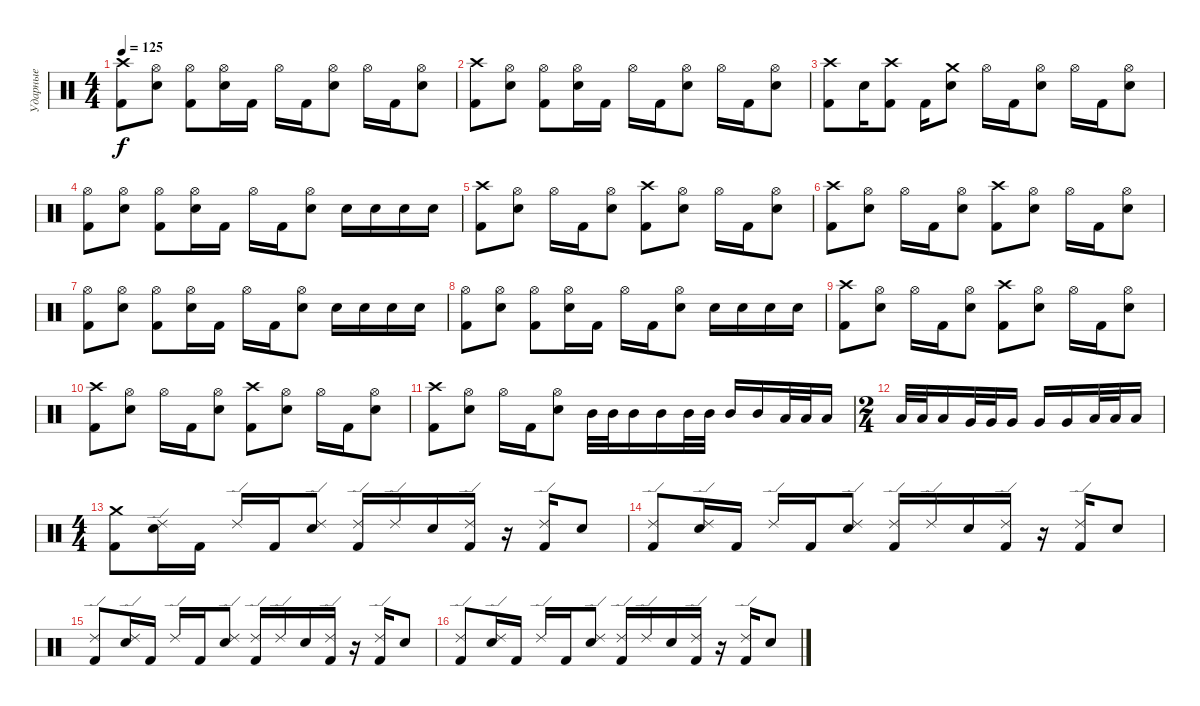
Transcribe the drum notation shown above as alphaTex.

\track ("Ударные" "Ударные") {instrument percussion}
\staff {score}
\articulation defaults
\ts (4 4)
\tempo 125
\clef neutral
\ks c
("Crash high (hit)" "Kick (hit) 2").8{dy f} ("Hi-Hat (open)" "Snare (hit) 2").8 ("Hi-Hat (open)" "Kick (hit) 2").8 ("Hi-Hat (open)" "Snare (hit) 2").16 "Kick (hit) 2".16 "Hi-Hat (open)".16 "Kick (hit) 2".16 ("Hi-Hat (open)" "Snare (hit) 2").8 "Hi-Hat (open)".16 "Kick (hit) 2".16 ("Hi-Hat (open)" "Snare (hit) 2").8 |
("Crash high (hit)" "Kick (hit) 2").8 ("Hi-Hat (open)" "Snare (hit) 2").8 ("Hi-Hat (open)" "Kick (hit) 2").8 ("Hi-Hat (open)" "Snare (hit) 2").16 "Kick (hit) 2".16 "Hi-Hat (open)".16 "Kick (hit) 2".16 ("Hi-Hat (open)" "Snare (hit) 2").8 "Hi-Hat (open)".16 "Kick (hit) 2".16 ("Hi-Hat (open)" "Snare (hit) 2").8 |
("Crash high (hit)" "Kick (hit) 2").8 "Snare (hit) 2".16 ("Crash high (hit)" "Kick (hit) 2").8 "Kick (hit) 2".16 ("Crash medium (hit)" "Snare (hit) 2").8 "Hi-Hat (open)".16 "Kick (hit) 2".16 ("Hi-Hat (open)" "Snare (hit) 2").8 "Hi-Hat (open)".16 "Kick (hit) 2".16 ("Hi-Hat (open)" "Snare (hit) 2").8 |
("Hi-Hat (open)" "Kick (hit) 2").8 ("Hi-Hat (open)" "Snare (hit) 2").8 ("Hi-Hat (open)" "Kick (hit) 2").8 ("Hi-Hat (open)" "Snare (hit) 2").16 "Kick (hit) 2".16 "Hi-Hat (open)".16 "Kick (hit) 2".16 ("Hi-Hat (open)" "Snare (hit) 2").8 "Snare (hit) 2".16 "Snare (hit) 2".16 "Snare (hit) 2".16 "Snare (hit) 2".16 |
("Crash high (hit)" "Kick (hit) 2").8 ("Hi-Hat (open)" "Snare (hit) 2").8 "Hi-Hat (open)".16 "Kick (hit) 2".16 ("Hi-Hat (open)" "Snare (hit) 2").8 ("Crash high (hit)" "Kick (hit) 2").8 ("Hi-Hat (open)" "Snare (hit) 2").8 "Hi-Hat (open)".16 "Kick (hit) 2".16 ("Hi-Hat (open)" "Snare (hit) 2").8 |
("Crash high (hit)" "Kick (hit) 2").8 ("Hi-Hat (open)" "Snare (hit) 2").8 "Hi-Hat (open)".16 "Kick (hit) 2".16 ("Hi-Hat (open)" "Snare (hit) 2").8 ("Crash high (hit)" "Kick (hit) 2").8 ("Hi-Hat (open)" "Snare (hit) 2").8 "Hi-Hat (open)".16 "Kick (hit) 2".16 ("Hi-Hat (open)" "Snare (hit) 2").8 |
("Hi-Hat (open)" "Kick (hit) 2").8 ("Hi-Hat (open)" "Snare (hit) 2").8 ("Hi-Hat (open)" "Kick (hit) 2").8 ("Hi-Hat (open)" "Snare (hit) 2").16 "Kick (hit) 2".16 "Hi-Hat (open)".16 "Kick (hit) 2".16 ("Hi-Hat (open)" "Snare (hit) 2").8 "Snare (hit) 2".16 "Snare (hit) 2".16 "Snare (hit) 2".16 "Snare (hit) 2".16 |
("Hi-Hat (open)" "Kick (hit) 2").8 ("Hi-Hat (open)" "Snare (hit) 2").8 ("Hi-Hat (open)" "Kick (hit) 2").8 ("Hi-Hat (open)" "Snare (hit) 2").16 "Kick (hit) 2".16 "Hi-Hat (open)".16 "Kick (hit) 2".16 ("Hi-Hat (open)" "Snare (hit) 2").8 "Snare (hit) 2".16 "Snare (hit) 2".16 "Snare (hit) 2".16 "Snare (hit) 2".16 |
("Crash high (hit)" "Kick (hit) 2").8 ("Hi-Hat (open)" "Snare (hit) 2").8 "Hi-Hat (open)".16 "Kick (hit) 2".16 ("Hi-Hat (open)" "Snare (hit) 2").8 ("Crash high (hit)" "Kick (hit) 2").8 ("Hi-Hat (open)" "Snare (hit) 2").8 "Hi-Hat (open)".16 "Kick (hit) 2".16 ("Hi-Hat (open)" "Snare (hit) 2").8 |
("Crash high (hit)" "Kick (hit) 2").8 ("Hi-Hat (open)" "Snare (hit) 2").8 "Hi-Hat (open)".16 "Kick (hit) 2".16 ("Hi-Hat (open)" "Snare (hit) 2").8 ("Crash high (hit)" "Kick (hit) 2").8 ("Hi-Hat (open)" "Snare (hit) 2").8 "Hi-Hat (open)".16 "Kick (hit) 2".16 ("Hi-Hat (open)" "Snare (hit) 2").8 |
("Crash high (hit)" "Kick (hit) 2").8 ("Hi-Hat (open)" "Snare (hit) 2").8 "Hi-Hat (open)".16 "Kick (hit) 2".16 ("Hi-Hat (open)" "Snare (hit) 2").8 "Mid Tom (hit)".32 "Mid Tom (hit)".32 "Mid Tom (hit)".16 "Mid Tom (hit)".16 "Mid Tom (hit)".32 "Mid Tom (hit)".32 "Mid Tom (hit)".16 "Mid Tom (hit)".16 "Low Tom (hit)".32 "Low Tom (hit)".32 "Low Tom (hit)".16 |
\ts (2 4)
"Low Tom (hit)".32 "Low Tom (hit)".32 "Low Tom (hit)".16 "Very Low Tom (hit)".32 "Very Low Tom (hit)".32 "Very Low Tom (hit)".16 "Very Low Tom (hit)".16 "Very Low Tom (hit)".16 "Low Floor Tom (hit)".32 "Low Floor Tom (hit)".32 "Low Floor Tom (hit)".16 |
\ts (4 4)
("Crash medium (hit)" "Kick (hit) 2").8 ("Ride (edge) 2" "Snare (hit) 2").16 "Kick (hit) 2".16 "Ride (edge) 2".16 "Kick (hit) 2".16 ("Ride (edge) 2" "Snare (hit) 2").8 ("Ride (edge) 2" "Kick (hit) 2").16 "Ride (edge) 2".16 "Snare (hit) 2".16 ("Ride (edge) 2" "Kick (hit) 2").16 r.16 ("Ride (edge) 2" "Kick (hit) 2").16 "Snare (hit) 2".8 |
("Ride (edge) 2" "Kick (hit) 2").8 ("Ride (edge) 2" "Snare (hit) 2").16 "Kick (hit) 2".16 "Ride (edge) 2".16 "Kick (hit) 2".16 ("Ride (edge) 2" "Snare (hit) 2").8 ("Ride (edge) 2" "Kick (hit) 2").16 "Ride (edge) 2".16 "Snare (hit) 2".16 ("Ride (edge) 2" "Kick (hit) 2").16 r.16 ("Ride (edge) 2" "Kick (hit) 2").16 "Snare (hit) 2".8 |
("Ride (edge) 2" "Kick (hit) 2").8 ("Ride (edge) 2" "Snare (hit) 2").16 "Kick (hit) 2".16 "Ride (edge) 2".16 "Kick (hit) 2".16 ("Ride (edge) 2" "Snare (hit) 2").8 ("Ride (edge) 2" "Kick (hit) 2").16 "Ride (edge) 2".16 "Snare (hit) 2".16 ("Ride (edge) 2" "Kick (hit) 2").16 r.16 ("Ride (edge) 2" "Kick (hit) 2").16 "Snare (hit) 2".8 |
("Ride (edge) 2" "Kick (hit) 2").8 ("Ride (edge) 2" "Snare (hit) 2").16 "Kick (hit) 2".16 "Ride (edge) 2".16 "Kick (hit) 2".16 ("Ride (edge) 2" "Snare (hit) 2").8 ("Ride (edge) 2" "Kick (hit) 2").16 "Ride (edge) 2".16 "Snare (hit) 2".16 ("Ride (edge) 2" "Kick (hit) 2").16 r.16 ("Ride (edge) 2" "Kick (hit) 2").16 "Snare (hit) 2".8
